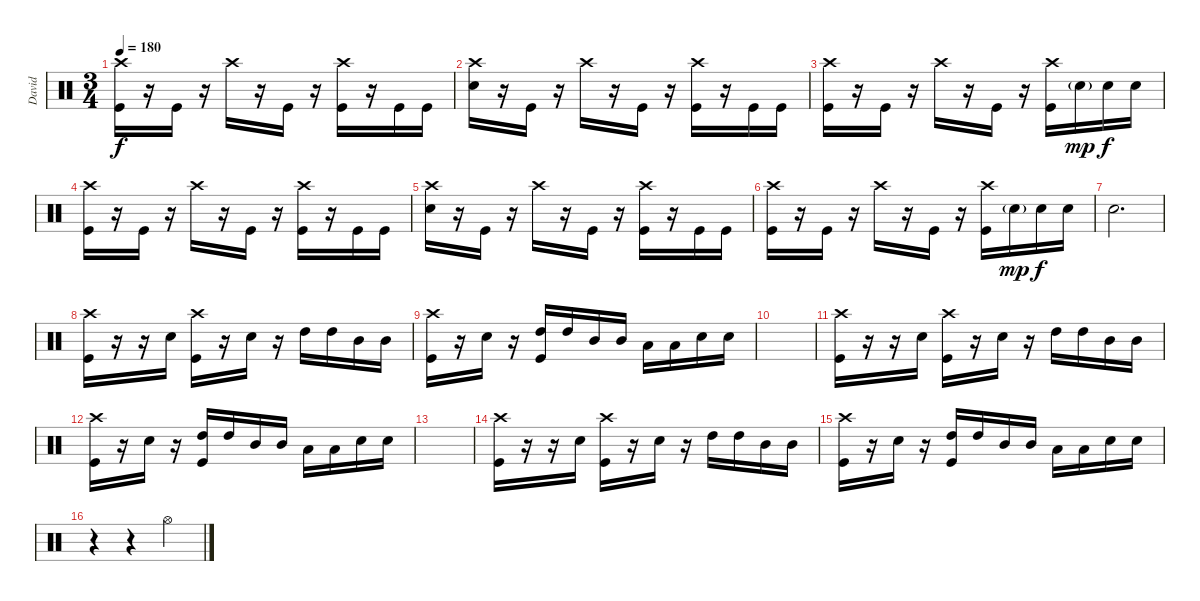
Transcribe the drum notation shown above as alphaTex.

\track ("David" "David") {instrument percussion}
\staff {score}
\articulation defaults
\ts (3 4)
\tempo 180
\clef neutral
\ks c
("Crash high (hit)" "Kick (hit)").16{dy f} r.16 "Kick (hit)".16 r.16 "Crash high (hit)".16 r.16 "Kick (hit)".16 r.16 ("Crash high (hit)" "Kick (hit)").16 r.16 "Kick (hit)".16 "Kick (hit)".16 |
("Crash high (hit)" "Electric Snare (hit)").16 r.16 "Kick (hit)".16 r.16 "Crash high (hit)".16 r.16 "Kick (hit)".16 r.16 ("Crash high (hit)" "Kick (hit)").16 r.16 "Kick (hit)".16 "Kick (hit)".16 |
("Crash high (hit)" "Kick (hit)").16 r.16 "Kick (hit)".16 r.16 "Crash high (hit)".16 r.16 "Kick (hit)".16 r.16 ("Crash high (hit)" "Kick (hit)").16 "Electric Snare (hit)"{g}.16{dy mp} "Electric Snare (hit)".16{dy f} "Electric Snare (hit)".16 |
("Crash high (hit)" "Kick (hit)").16 r.16 "Kick (hit)".16 r.16 "Crash high (hit)".16 r.16 "Kick (hit)".16 r.16 ("Crash high (hit)" "Kick (hit)").16 r.16 "Kick (hit)".16 "Kick (hit)".16 |
("Crash high (hit)" "Electric Snare (hit)").16 r.16 "Kick (hit)".16 r.16 "Crash high (hit)".16 r.16 "Kick (hit)".16 r.16 ("Crash high (hit)" "Kick (hit)").16 r.16 "Kick (hit)".16 "Kick (hit)".16 |
("Crash high (hit)" "Kick (hit)").16 r.16 "Kick (hit)".16 r.16 "Crash high (hit)".16 r.16 "Kick (hit)".16 r.16 ("Crash high (hit)" "Kick (hit)").16 "Electric Snare (hit)"{g}.16{dy mp} "Electric Snare (hit)".16{dy f} "Electric Snare (hit)".16 |
"Electric Snare (hit)".2{d} |
("Crash high (hit)" "Kick (hit)").16 r.16 r.16 "Electric Snare (hit)".16 ("Crash high (hit)" "Kick (hit)").16 r.16 "Electric Snare (hit)".16 r.16 "High Tom (hit)".16 "High Tom (hit)".16 "Mid Tom (hit)".16 "Mid Tom (hit)".16 |
("Crash high (hit)" "Kick (hit)").16 r.16 "Electric Snare (hit)".16 r.16 ("High Tom (hit)" "Kick (hit)").16 "High Tom (hit)".16 "Mid Tom (hit)".16 "Mid Tom (hit)".16 "Low Tom (hit)".16 "Low Tom (hit)".16 "Electric Snare (hit)".16 "Electric Snare (hit)".16 |
|
("Crash high (hit)" "Kick (hit)").16 r.16 r.16 "Electric Snare (hit)".16 ("Crash high (hit)" "Kick (hit)").16 r.16 "Electric Snare (hit)".16 r.16 "High Tom (hit)".16 "High Tom (hit)".16 "Mid Tom (hit)".16 "Mid Tom (hit)".16 |
("Crash high (hit)" "Kick (hit)").16 r.16 "Electric Snare (hit)".16 r.16 ("High Tom (hit)" "Kick (hit)").16 "High Tom (hit)".16 "Mid Tom (hit)".16 "Mid Tom (hit)".16 "Low Tom (hit)".16 "Low Tom (hit)".16 "Electric Snare (hit)".16 "Electric Snare (hit)".16 |
|
("Crash high (hit)" "Kick (hit)").16 r.16 r.16 "Electric Snare (hit)".16 ("Crash high (hit)" "Kick (hit)").16 r.16 "Electric Snare (hit)".16 r.16 "High Tom (hit)".16 "High Tom (hit)".16 "Mid Tom (hit)".16 "Mid Tom (hit)".16 |
("Crash high (hit)" "Kick (hit)").16 r.16 "Electric Snare (hit)".16 r.16 ("High Tom (hit)" "Kick (hit)").16 "High Tom (hit)".16 "Mid Tom (hit)".16 "Mid Tom (hit)".16 "Low Tom (hit)".16 "Low Tom (hit)".16 "Electric Snare (hit)".16 "Electric Snare (hit)".16 |
r.4 r.4 "Hi-Hat (open)".4
